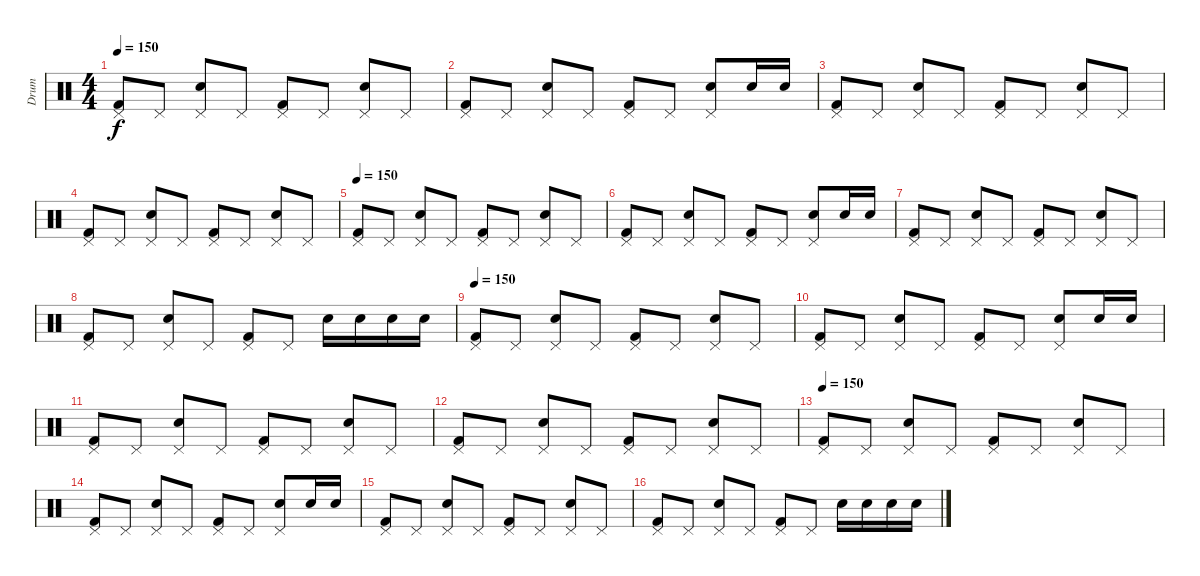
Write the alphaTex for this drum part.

\track ("Drum" "Drum") {instrument percussion}
\staff {score}
\articulation defaults
\ts (4 4)
\tempo 150
\clef neutral
\ks c
("Pedal Hi-Hat (hit)" "Kick (hit) 2").8{dy f} "Pedal Hi-Hat (hit)".8 ("Pedal Hi-Hat (hit)" "Electric Snare (hit)").8 "Pedal Hi-Hat (hit)".8 ("Pedal Hi-Hat (hit)" "Kick (hit) 2").8 "Pedal Hi-Hat (hit)".8 ("Pedal Hi-Hat (hit)" "Electric Snare (hit)").8 "Pedal Hi-Hat (hit)".8 |
("Pedal Hi-Hat (hit)" "Kick (hit) 2").8 "Pedal Hi-Hat (hit)".8 ("Pedal Hi-Hat (hit)" "Electric Snare (hit)").8 "Pedal Hi-Hat (hit)".8 ("Pedal Hi-Hat (hit)" "Kick (hit) 2").8 "Pedal Hi-Hat (hit)".8 ("Pedal Hi-Hat (hit)" "Electric Snare (hit)").8 "Electric Snare (hit)".16 "Electric Snare (hit)".16 |
("Pedal Hi-Hat (hit)" "Kick (hit) 2").8 "Pedal Hi-Hat (hit)".8 ("Pedal Hi-Hat (hit)" "Electric Snare (hit)").8 "Pedal Hi-Hat (hit)".8 ("Pedal Hi-Hat (hit)" "Kick (hit) 2").8 "Pedal Hi-Hat (hit)".8 ("Pedal Hi-Hat (hit)" "Electric Snare (hit)").8 "Pedal Hi-Hat (hit)".8 |
("Pedal Hi-Hat (hit)" "Kick (hit) 2").8 "Pedal Hi-Hat (hit)".8 ("Pedal Hi-Hat (hit)" "Electric Snare (hit)").8 "Pedal Hi-Hat (hit)".8 ("Pedal Hi-Hat (hit)" "Kick (hit) 2").8 "Pedal Hi-Hat (hit)".8 ("Pedal Hi-Hat (hit)" "Electric Snare (hit)").8 "Pedal Hi-Hat (hit)".8 |
\tempo 150
("Pedal Hi-Hat (hit)" "Kick (hit) 2").8 "Pedal Hi-Hat (hit)".8 ("Pedal Hi-Hat (hit)" "Electric Snare (hit)").8 "Pedal Hi-Hat (hit)".8 ("Pedal Hi-Hat (hit)" "Kick (hit) 2").8 "Pedal Hi-Hat (hit)".8 ("Pedal Hi-Hat (hit)" "Electric Snare (hit)").8 "Pedal Hi-Hat (hit)".8 |
("Pedal Hi-Hat (hit)" "Kick (hit) 2").8 "Pedal Hi-Hat (hit)".8 ("Pedal Hi-Hat (hit)" "Electric Snare (hit)").8 "Pedal Hi-Hat (hit)".8 ("Pedal Hi-Hat (hit)" "Kick (hit) 2").8 "Pedal Hi-Hat (hit)".8 ("Pedal Hi-Hat (hit)" "Electric Snare (hit)").8 "Electric Snare (hit)".16 "Electric Snare (hit)".16 |
("Pedal Hi-Hat (hit)" "Kick (hit) 2").8 "Pedal Hi-Hat (hit)".8 ("Pedal Hi-Hat (hit)" "Electric Snare (hit)").8 "Pedal Hi-Hat (hit)".8 ("Pedal Hi-Hat (hit)" "Kick (hit) 2").8 "Pedal Hi-Hat (hit)".8 ("Pedal Hi-Hat (hit)" "Electric Snare (hit)").8 "Pedal Hi-Hat (hit)".8 |
("Pedal Hi-Hat (hit)" "Kick (hit) 2").8 "Pedal Hi-Hat (hit)".8 ("Pedal Hi-Hat (hit)" "Electric Snare (hit)").8 "Pedal Hi-Hat (hit)".8 ("Pedal Hi-Hat (hit)" "Kick (hit) 2").8 "Pedal Hi-Hat (hit)".8 "Electric Snare (hit)".16 "Electric Snare (hit)".16 "Electric Snare (hit)".16 "Electric Snare (hit)".16 |
\tempo 150
("Pedal Hi-Hat (hit)" "Kick (hit) 2").8 "Pedal Hi-Hat (hit)".8 ("Pedal Hi-Hat (hit)" "Electric Snare (hit)").8 "Pedal Hi-Hat (hit)".8 ("Pedal Hi-Hat (hit)" "Kick (hit) 2").8 "Pedal Hi-Hat (hit)".8 ("Pedal Hi-Hat (hit)" "Electric Snare (hit)").8 "Pedal Hi-Hat (hit)".8 |
("Pedal Hi-Hat (hit)" "Kick (hit) 2").8 "Pedal Hi-Hat (hit)".8 ("Pedal Hi-Hat (hit)" "Electric Snare (hit)").8 "Pedal Hi-Hat (hit)".8 ("Pedal Hi-Hat (hit)" "Kick (hit) 2").8 "Pedal Hi-Hat (hit)".8 ("Pedal Hi-Hat (hit)" "Electric Snare (hit)").8 "Electric Snare (hit)".16 "Electric Snare (hit)".16 |
("Pedal Hi-Hat (hit)" "Kick (hit) 2").8 "Pedal Hi-Hat (hit)".8 ("Pedal Hi-Hat (hit)" "Electric Snare (hit)").8 "Pedal Hi-Hat (hit)".8 ("Pedal Hi-Hat (hit)" "Kick (hit) 2").8 "Pedal Hi-Hat (hit)".8 ("Pedal Hi-Hat (hit)" "Electric Snare (hit)").8 "Pedal Hi-Hat (hit)".8 |
("Pedal Hi-Hat (hit)" "Kick (hit) 2").8 "Pedal Hi-Hat (hit)".8 ("Pedal Hi-Hat (hit)" "Electric Snare (hit)").8 "Pedal Hi-Hat (hit)".8 ("Pedal Hi-Hat (hit)" "Kick (hit) 2").8 "Pedal Hi-Hat (hit)".8 ("Pedal Hi-Hat (hit)" "Electric Snare (hit)").8 "Pedal Hi-Hat (hit)".8 |
\tempo 150
("Pedal Hi-Hat (hit)" "Kick (hit) 2").8 "Pedal Hi-Hat (hit)".8 ("Pedal Hi-Hat (hit)" "Electric Snare (hit)").8 "Pedal Hi-Hat (hit)".8 ("Pedal Hi-Hat (hit)" "Kick (hit) 2").8 "Pedal Hi-Hat (hit)".8 ("Pedal Hi-Hat (hit)" "Electric Snare (hit)").8 "Pedal Hi-Hat (hit)".8 |
("Pedal Hi-Hat (hit)" "Kick (hit) 2").8 "Pedal Hi-Hat (hit)".8 ("Pedal Hi-Hat (hit)" "Electric Snare (hit)").8 "Pedal Hi-Hat (hit)".8 ("Pedal Hi-Hat (hit)" "Kick (hit) 2").8 "Pedal Hi-Hat (hit)".8 ("Pedal Hi-Hat (hit)" "Electric Snare (hit)").8 "Electric Snare (hit)".16 "Electric Snare (hit)".16 |
("Pedal Hi-Hat (hit)" "Kick (hit) 2").8 "Pedal Hi-Hat (hit)".8 ("Pedal Hi-Hat (hit)" "Electric Snare (hit)").8 "Pedal Hi-Hat (hit)".8 ("Pedal Hi-Hat (hit)" "Kick (hit) 2").8 "Pedal Hi-Hat (hit)".8 ("Pedal Hi-Hat (hit)" "Electric Snare (hit)").8 "Pedal Hi-Hat (hit)".8 |
("Pedal Hi-Hat (hit)" "Kick (hit) 2").8 "Pedal Hi-Hat (hit)".8 ("Pedal Hi-Hat (hit)" "Electric Snare (hit)").8 "Pedal Hi-Hat (hit)".8 ("Pedal Hi-Hat (hit)" "Kick (hit) 2").8 "Pedal Hi-Hat (hit)".8 "Electric Snare (hit)".16 "Electric Snare (hit)".16 "Electric Snare (hit)".16 "Electric Snare (hit)".16
